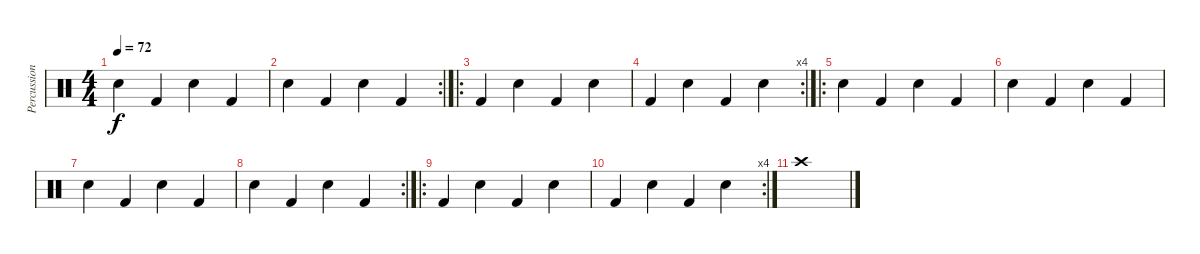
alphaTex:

\track ("Percussion" "Percussion") {instrument percussion}
\staff {score}
\articulation defaults
\ts (4 4)
\tempo 72
\clef neutral
\ks c "Snare (hit) 2".4{dy f} "Kick (hit) 2".4 "Snare (hit) 2".4 "Kick (hit) 2".4
|
\rc 2 "Snare (hit) 2".4 "Kick (hit) 2".4 "Snare (hit) 2".4 "Kick (hit) 2".4
|
\ro "Kick (hit) 2".4 "Snare (hit) 2".4 "Kick (hit) 2".4 "Snare (hit) 2".4
|
\rc 4 "Kick (hit) 2".4 "Snare (hit) 2".4 "Kick (hit) 2".4 "Snare (hit) 2".4
|
\ro "Snare (hit) 2".4 "Kick (hit) 2".4 "Snare (hit) 2".4 "Kick (hit) 2".4
|
"Snare (hit) 2".4 "Kick (hit) 2".4 "Snare (hit) 2".4 "Kick (hit) 2".4 |
"Snare (hit) 2".4 "Kick (hit) 2".4 "Snare (hit) 2".4 "Kick (hit) 2".4 |
\rc 2 "Snare (hit) 2".4 "Kick (hit) 2".4 "Snare (hit) 2".4 "Kick (hit) 2".4
|
\ro "Kick (hit) 2".4 "Snare (hit) 2".4 "Kick (hit) 2".4 "Snare (hit) 2".4
|
\rc 4 "Kick (hit) 2".4 "Snare (hit) 2".4 "Kick (hit) 2".4 "Snare (hit) 2".4
|
"Crash high (hit)".1
